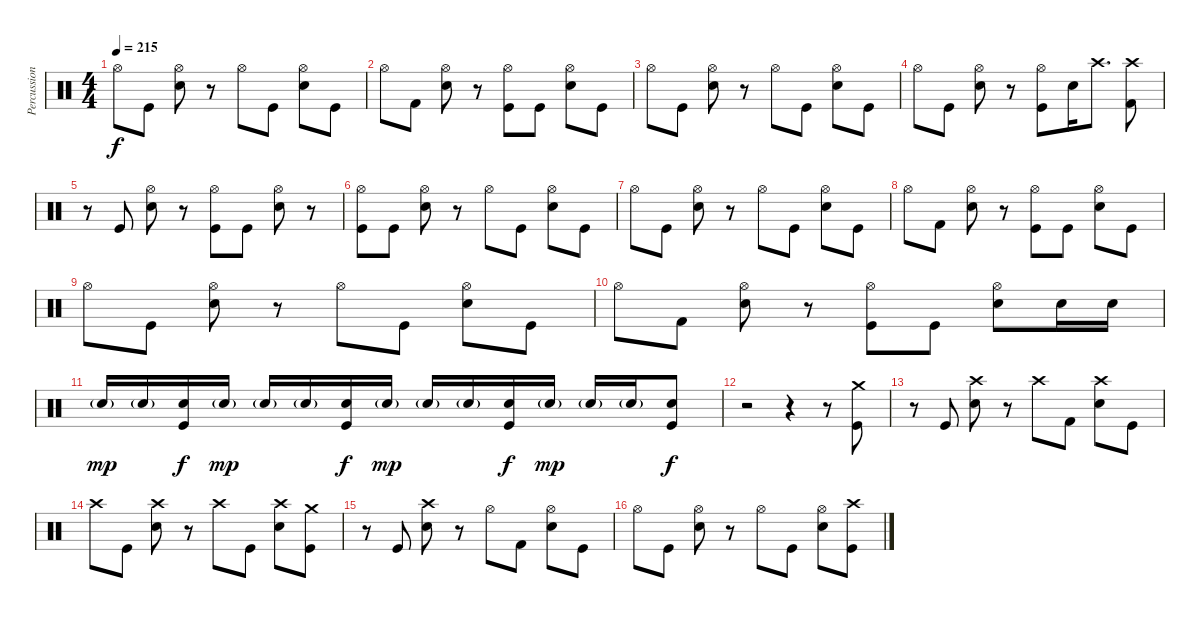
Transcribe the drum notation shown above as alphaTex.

\track ("Percussion" "Percussion") {instrument percussion}
\staff {score}
\articulation defaults
\ts (4 4)
\tempo 215
\clef neutral
\ks c "Hi-Hat (open)".8{dy f} "Kick (hit)".8
("Hi-Hat (open)" "Electric Snare (hit)").8 r.8 "Hi-Hat (open)".8 "Kick (hit)".8 ("Hi-Hat (open)" "Electric Snare (hit)").8 "Kick (hit)".8 |
"Hi-Hat (open)".8 "Kick (hit) 2".8 ("Hi-Hat (open)" "Electric Snare (hit)").8 r.8 ("Hi-Hat (open)" "Kick (hit)").8 "Kick (hit)".8 ("Hi-Hat (open)" "Electric Snare (hit)").8 "Kick (hit)".8 |
"Hi-Hat (open)".8 "Kick (hit)".8 ("Hi-Hat (open)" "Electric Snare (hit)").8 r.8 "Hi-Hat (open)".8 "Kick (hit)".8 ("Hi-Hat (open)" "Electric Snare (hit)").8 "Kick (hit)".8 |
"Hi-Hat (open)".8 "Kick (hit)".8 ("Hi-Hat (open)" "Electric Snare (hit)").8 r.8 ("Hi-Hat (open)" "Kick (hit)").8 "Electric Snare (hit)".16 "Crash high (hit)".8{d} ("Crash high (hit)" "Kick (hit) 2").8 |
r.8 "Kick (hit)".8 ("Hi-Hat (open)" "Electric Snare (hit)").8 r.8 ("Hi-Hat (open)" "Kick (hit)").8 "Kick (hit)".8 ("Hi-Hat (open)" "Electric Snare (hit)").8 r.8 |
("Hi-Hat (open)" "Kick (hit)").8 "Kick (hit)".8 ("Hi-Hat (open)" "Electric Snare (hit)").8 r.8 "Hi-Hat (open)".8 "Kick (hit)".8 ("Hi-Hat (open)" "Electric Snare (hit)").8 "Kick (hit)".8 |
"Hi-Hat (open)".8 "Kick (hit)".8 ("Hi-Hat (open)" "Electric Snare (hit)").8 r.8 "Hi-Hat (open)".8 "Kick (hit)".8 ("Hi-Hat (open)" "Electric Snare (hit)").8 "Kick (hit)".8 |
"Hi-Hat (open)".8 "Kick (hit) 2".8 ("Hi-Hat (open)" "Electric Snare (hit)").8 r.8 ("Hi-Hat (open)" "Kick (hit)").8 "Kick (hit)".8 ("Hi-Hat (open)" "Electric Snare (hit)").8 "Kick (hit)".8 |
"Hi-Hat (open)".8 "Kick (hit)".8 ("Hi-Hat (open)" "Electric Snare (hit)").8 r.8 "Hi-Hat (open)".8 "Kick (hit)".8 ("Hi-Hat (open)" "Electric Snare (hit)").8 "Kick (hit)".8 |
"Hi-Hat (open)".8 "Kick (hit) 2".8 ("Hi-Hat (open)" "Electric Snare (hit)").8 r.8 ("Hi-Hat (open)" "Kick (hit)").8 "Kick (hit)".8 ("Hi-Hat (open)" "Electric Snare (hit)").8 "Electric Snare (hit)".16 "Electric Snare (hit)".16 |
"Electric Snare (hit)"{g}.16{dy mp} "Electric Snare (hit)"{g}.16 ("Electric Snare (hit)" "Kick (hit)").16{dy f} "Electric Snare (hit)"{g}.16{dy mp} "Electric Snare (hit)"{g}.16 "Electric Snare (hit)"{g}.16 ("Electric Snare (hit)" "Kick (hit)").16{dy f} "Electric Snare (hit)"{g}.16{dy mp} "Electric Snare (hit)"{g}.16 "Electric Snare (hit)"{g}.16 ("Electric Snare (hit)" "Kick (hit)").16{dy f} "Electric Snare (hit)"{g}.16{dy mp} "Electric Snare (hit)"{g}.16 "Electric Snare (hit)"{g}.16 ("Electric Snare (hit)" "Kick (hit)").8{dy f} |
r.2 r.4 r.8 ("Crash medium (hit)" "Kick (hit)").8 |
r.8 "Kick (hit)".8 ("Crash high (hit)" "Electric Snare (hit)").8 r.8 "Crash high (hit)".8 "Kick (hit) 2".8 ("Crash high (hit)" "Electric Snare (hit)").8 "Kick (hit)".8 |
"Crash high (hit)".8 "Kick (hit)".8 ("Crash high (hit)" "Electric Snare (hit)").8 r.8 "Crash high (hit)".8 "Kick (hit)".8 ("Crash high (hit)" "Electric Snare (hit)").8 ("Crash medium (hit)" "Kick (hit)").8 |
r.8 "Kick (hit)".8 ("Crash high (hit)" "Electric Snare (hit)").8 r.8 "Hi-Hat (open)".8 "Kick (hit) 2".8 ("Hi-Hat (open)" "Electric Snare (hit)").8 "Kick (hit)".8 |
"Hi-Hat (open)".8 "Kick (hit)".8 ("Hi-Hat (open)" "Electric Snare (hit)").8 r.8 "Hi-Hat (open)".8 "Kick (hit)".8 ("Hi-Hat (open)" "Electric Snare (hit)").8 ("Crash high (hit)" "Kick (hit)").8
